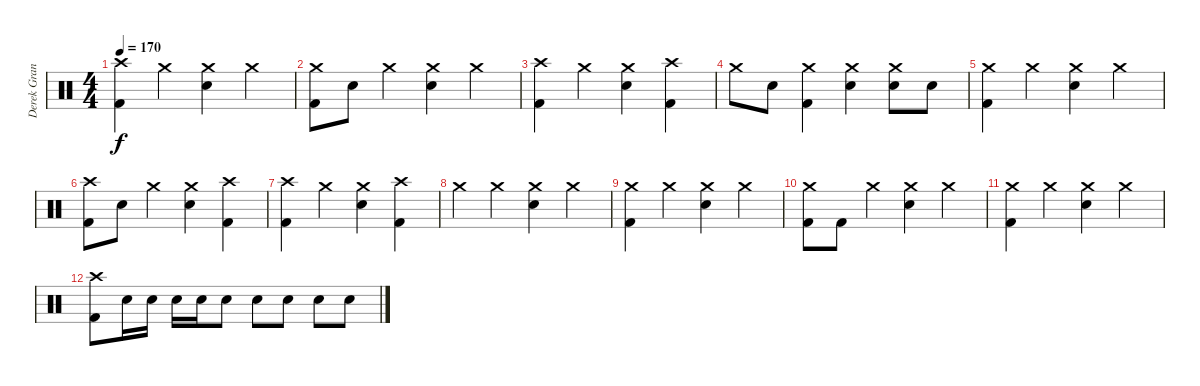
\track ("Derek Grant" "Derek Gran") {instrument percussion}
\staff {score}
\articulation defaults
\ts (4 4)
\tempo 170
\clef neutral
\ks c
("Crash high (hit)" "Kick (hit) 2").4{dy f} "Crash medium (hit)".4 ("Crash medium (hit)" "Snare (hit) 2").4 "Crash medium (hit)".4 |
("Crash medium (hit)" "Kick (hit) 2").8 "Snare (hit) 2".8 "Crash medium (hit)".4 ("Crash medium (hit)" "Snare (hit) 2").4 "Crash medium (hit)".4 |
("Crash high (hit)" "Kick (hit) 2").4 "Crash medium (hit)".4 ("Crash medium (hit)" "Snare (hit) 2").4 ("Crash high (hit)" "Kick (hit) 2").4 |
"Crash medium (hit)".8 "Snare (hit) 2".8 ("Crash medium (hit)" "Kick (hit) 2").4 ("Crash medium (hit)" "Snare (hit) 2").4 ("Crash medium (hit)" "Snare (hit) 2").8 "Snare (hit) 2".8 |
("Crash medium (hit)" "Kick (hit) 2").4 "Crash medium (hit)".4 ("Crash medium (hit)" "Snare (hit) 2").4 "Crash medium (hit)".4 |
("Crash high (hit)" "Kick (hit) 2").8 "Snare (hit) 2".8 "Crash medium (hit)".4 ("Crash medium (hit)" "Snare (hit) 2").4 ("Crash high (hit)" "Kick (hit) 2").4 |
("Crash high (hit)" "Kick (hit) 2").4 "Crash medium (hit)".4 ("Crash medium (hit)" "Snare (hit) 2").4 ("Crash high (hit)" "Kick (hit) 2").4 |
"Crash medium (hit)".4 "Crash medium (hit)".4 ("Crash medium (hit)" "Snare (hit) 2").4 "Crash medium (hit)".4 |
("Crash medium (hit)" "Kick (hit) 2").4 "Crash medium (hit)".4 ("Crash medium (hit)" "Snare (hit) 2").4 "Crash medium (hit)".4 |
("Crash medium (hit)" "Kick (hit) 2").8 "Kick (hit) 2".8 "Crash medium (hit)".4 ("Crash medium (hit)" "Snare (hit) 2").4 "Crash medium (hit)".4 |
("Crash medium (hit)" "Kick (hit) 2").4 "Crash medium (hit)".4 ("Crash medium (hit)" "Snare (hit) 2").4 "Crash medium (hit)".4 |
("Crash high (hit)" "Kick (hit) 2").8 "Snare (hit) 2".16 "Snare (hit) 2".16 "Snare (hit) 2".16 "Snare (hit) 2".16 "Snare (hit) 2".8 "Snare (hit) 2".8 "Snare (hit) 2".8 "Snare (hit) 2".8 "Snare (hit) 2".8
